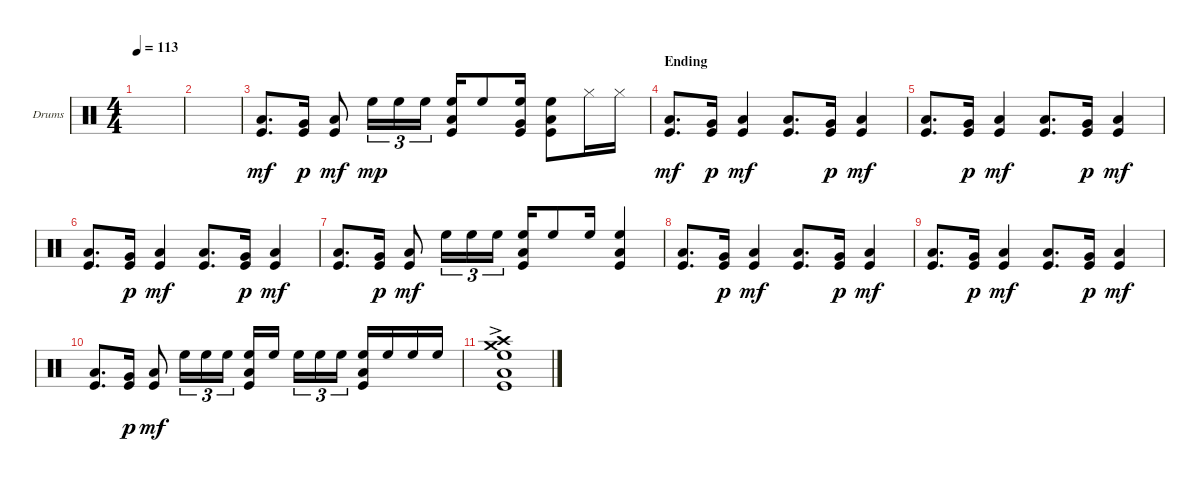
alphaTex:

\defaultSystemsLayout 4
\bracketExtendMode groupsimilarinstruments
\firstSystemTrackNameOrientation horizontal
\otherSystemsTrackNameOrientation horizontal
\track ("Drumkit" "Drums") {instrument percussion}
\staff {score}
\articulation defaults
\ts (4 4)
\tempo 113
\clef neutral
\scale
0.333333
\ks c
|
\scale
0.333333 |
\scale
0.333333 ("Kick (hit)" "Low Tom (hit)").8{d dy mf} ("Very Low Tom (hit)" "Kick (hit)").16{dy p} ("Kick (hit)" "Low Tom (hit)").8{dy mf} "High Floor Tom (hit)".16{tu (3 2) dy mp} "High Floor Tom (hit)".16{tu (3 2)} "High Floor Tom (hit)".16{tu (3 2)} ("High Floor Tom (hit)" "Kick (hit)" "Low Tom (hit)").16 "High Floor Tom (hit)".8 ("High Floor Tom (hit)" "Very Low Tom (hit)" "Kick (hit)").16 ("High Floor Tom (hit)" "Kick (hit)" "Low Tom (hit)").8 "Hi-Hat (closed)".16 "Hi-Hat (closed)".16 |
\section ("" "Ending")
("Kick (hit)" "Low Tom (hit)").8{d dy mf} ("Very Low Tom (hit)" "Kick (hit)").16{dy p} ("Kick (hit)" "Low Tom (hit)").4{dy mf} ("Kick (hit)" "Low Tom (hit)").8{d} ("Very Low Tom (hit)" "Kick (hit)").16{dy p} ("Kick (hit)" "Low Tom (hit)").4{dy mf} |
("Kick (hit)" "Low Tom (hit)").8{d} ("Very Low Tom (hit)" "Kick (hit)").16{dy p} ("Kick (hit)" "Low Tom (hit)").4{dy mf} ("Kick (hit)" "Low Tom (hit)").8{d} ("Very Low Tom (hit)" "Kick (hit)").16{dy p} ("Kick (hit)" "Low Tom (hit)").4{dy mf} |
("Kick (hit)" "Low Tom (hit)").8{d} ("Very Low Tom (hit)" "Kick (hit)").16{dy p} ("Kick (hit)" "Low Tom (hit)").4{dy mf} ("Kick (hit)" "Low Tom (hit)").8{d} ("Very Low Tom (hit)" "Kick (hit)").16{dy p} ("Kick (hit)" "Low Tom (hit)").4{dy mf} |
("Kick (hit)" "Low Tom (hit)").8{d} ("Very Low Tom (hit)" "Kick (hit)").16{dy p} ("Low Tom (hit)" "Kick (hit)").8{dy mf} "High Floor Tom (hit)".16{tu (3 2)} "High Floor Tom (hit)".16{tu (3 2)} "High Floor Tom (hit)".16{tu (3 2)} ("Kick (hit)" "Low Tom (hit)" "High Floor Tom (hit)").16 "High Floor Tom (hit)".8 "High Floor Tom (hit)".16 ("Low Tom (hit)" "Kick (hit)" "High Floor Tom (hit)").4 |
("Kick (hit)" "Low Tom (hit)").8{d} ("Very Low Tom (hit)" "Kick (hit)").16{dy p} ("Kick (hit)" "Low Tom (hit)").4{dy mf} ("Kick (hit)" "Low Tom (hit)").8{d} ("Very Low Tom (hit)" "Kick (hit)").16{dy p} ("Kick (hit)" "Low Tom (hit)").4{dy mf} |
("Kick (hit)" "Low Tom (hit)").8{d} ("Very Low Tom (hit)" "Kick (hit)").16{dy p} ("Kick (hit)" "Low Tom (hit)").4{dy mf} ("Kick (hit)" "Low Tom (hit)").8{d} ("Very Low Tom (hit)" "Kick (hit)").16{dy p} ("Kick (hit)" "Low Tom (hit)").4{dy mf} |
("Kick (hit)" "Low Tom (hit)").8{d} ("Very Low Tom (hit)" "Kick (hit)").16{dy p} ("Low Tom (hit)" "Kick (hit)").8{dy mf} "High Floor Tom (hit)".16{tu (3 2)} "High Floor Tom (hit)".16{tu (3 2)} "High Floor Tom (hit)".16{tu (3 2)} ("Kick (hit)" "Low Tom (hit)" "High Floor Tom (hit)").16 "High Floor Tom (hit)".16 "High Floor Tom (hit)".16{tu (3 2)} "High Floor Tom (hit)".16{tu (3 2)} "High Floor Tom (hit)".16{tu (3 2)} ("Low Tom (hit)" "Kick (hit)" "High Floor Tom (hit)").16 "High Floor Tom (hit)".16 "High Floor Tom (hit)".16 "High Floor Tom (hit)".16 |
("Kick (hit)" "Low Tom (hit)" "Crash high (hit)" "Crash medium (hit)"{ac} "High Floor Tom (hit)").1
